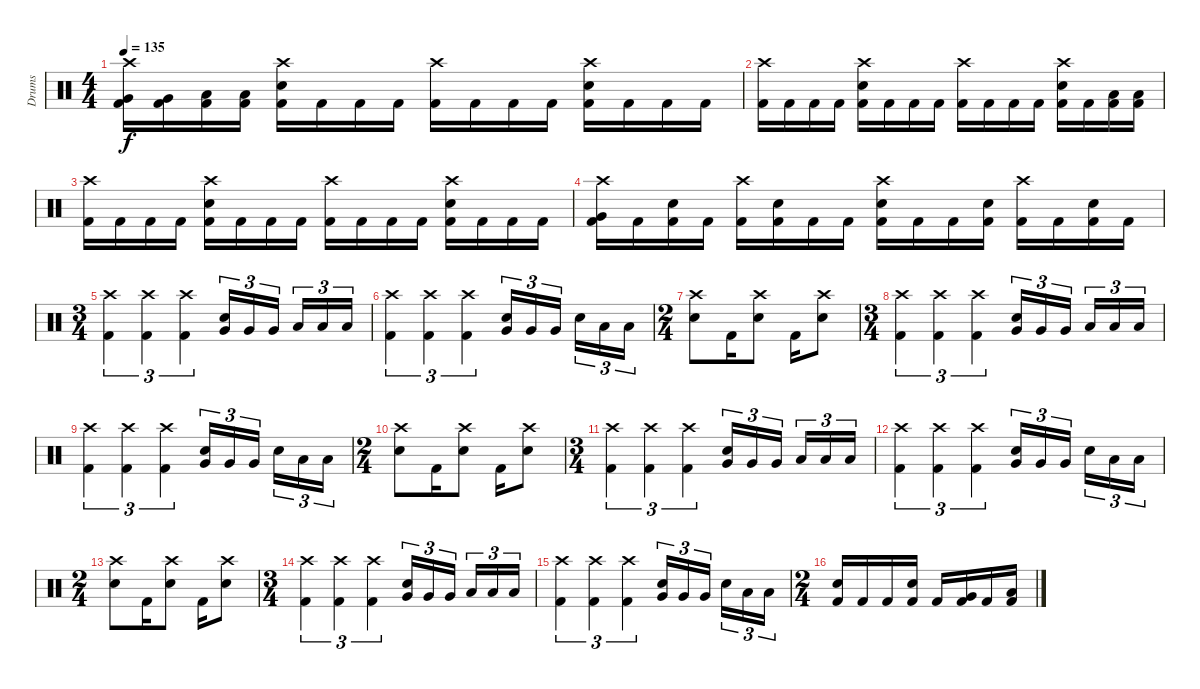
\track ("Drums" "Drums") {instrument percussion}
\staff {score}
\articulation defaults
\ts (4 4)
\tempo 135
\clef neutral
\ks c
("Crash high (hit)" "Kick (hit) 2" "Very Low Tom (hit)").16{dy f} ("Kick (hit) 2" "Very Low Tom (hit)").16 ("Kick (hit) 2" "Low Floor Tom (hit)").16 ("Kick (hit) 2" "Low Floor Tom (hit)").16 ("Crash high (hit)" "Kick (hit) 2" "Electric Snare (hit)").16 "Kick (hit) 2".16 "Kick (hit) 2".16 "Kick (hit) 2".16 ("Crash high (hit)" "Kick (hit) 2").16 "Kick (hit) 2".16 "Kick (hit) 2".16 "Kick (hit) 2".16 ("Crash high (hit)" "Kick (hit) 2" "Electric Snare (hit)").16 "Kick (hit) 2".16 "Kick (hit) 2".16 "Kick (hit) 2".16 |
("Crash high (hit)" "Kick (hit) 2").16 "Kick (hit) 2".16 "Kick (hit) 2".16 "Kick (hit) 2".16 ("Crash high (hit)" "Kick (hit) 2" "Electric Snare (hit)").16 "Kick (hit) 2".16 "Kick (hit) 2".16 "Kick (hit) 2".16 ("Crash high (hit)" "Kick (hit) 2").16 "Kick (hit) 2".16 "Kick (hit) 2".16 "Kick (hit) 2".16 ("Crash high (hit)" "Kick (hit) 2" "Electric Snare (hit)").16 "Kick (hit) 2".16 ("Kick (hit) 2" "Low Floor Tom (hit)").16 ("Kick (hit) 2" "Low Floor Tom (hit)").16 |
("Crash high (hit)" "Kick (hit) 2").16 "Kick (hit) 2".16 "Kick (hit) 2".16 "Kick (hit) 2".16 ("Crash high (hit)" "Kick (hit) 2" "Electric Snare (hit)").16 "Kick (hit) 2".16 "Kick (hit) 2".16 "Kick (hit) 2".16 ("Crash high (hit)" "Kick (hit) 2").16 "Kick (hit) 2".16 "Kick (hit) 2".16 "Kick (hit) 2".16 ("Crash high (hit)" "Kick (hit) 2" "Electric Snare (hit)").16 "Kick (hit) 2".16 "Kick (hit) 2".16 "Kick (hit) 2".16 |
("Crash high (hit)" "Kick (hit) 2" "Very Low Tom (hit)").16 "Kick (hit) 2".16 ("Kick (hit) 2" "Electric Snare (hit)").16 "Kick (hit) 2".16 ("Crash high (hit)" "Kick (hit) 2").16 ("Kick (hit) 2" "Electric Snare (hit)").16 "Kick (hit) 2".16 "Kick (hit) 2".16 ("Crash high (hit)" "Kick (hit) 2" "Electric Snare (hit)").16 "Kick (hit) 2".16 "Kick (hit) 2".16 ("Kick (hit) 2" "Electric Snare (hit)").16 ("Crash high (hit)" "Kick (hit) 2").16 "Kick (hit) 2".16 ("Kick (hit) 2" "Electric Snare (hit)").16 "Kick (hit) 2".16 |
\ts (3 4)
("Crash high (hit)" "Kick (hit) 2").4{tu (3 2)} ("Crash high (hit)" "Kick (hit) 2").4{tu (3 2)} ("Crash high (hit)" "Kick (hit) 2").4{tu (3 2)} ("Very Low Tom (hit)" "Electric Snare (hit)").16{tu (3 2)} "Very Low Tom (hit)".16{tu (3 2)} "Very Low Tom (hit)".16{tu (3 2) beam splitsecondary} "Low Floor Tom (hit)".16{tu (3 2)} "Low Floor Tom (hit)".16{tu (3 2)} "Low Floor Tom (hit)".16{tu (3 2)} |
("Crash high (hit)" "Kick (hit) 2").4{tu (3 2)} ("Crash high (hit)" "Kick (hit) 2").4{tu (3 2)} ("Crash high (hit)" "Kick (hit) 2").4{tu (3 2)} ("Very Low Tom (hit)" "Electric Snare (hit)").16{tu (3 2)} "Very Low Tom (hit)".16{tu (3 2)} "Very Low Tom (hit)".16{tu (3 2) beam splitsecondary} "Electric Snare (hit)".16{tu (3 2)} "Low Floor Tom (hit)".16{tu (3 2)} "Low Floor Tom (hit)".16{tu (3 2)} |
\ts (2 4)
("Crash high (hit)" "Electric Snare (hit)").8 "Kick (hit) 2".16 ("Crash high (hit)" "Electric Snare (hit)").8 "Kick (hit) 2".16 ("Crash high (hit)" "Electric Snare (hit)").8 |
\ts (3 4)
("Crash high (hit)" "Kick (hit) 2").4{tu (3 2)} ("Crash high (hit)" "Kick (hit) 2").4{tu (3 2)} ("Crash high (hit)" "Kick (hit) 2").4{tu (3 2)} ("Very Low Tom (hit)" "Electric Snare (hit)").16{tu (3 2)} "Very Low Tom (hit)".16{tu (3 2)} "Very Low Tom (hit)".16{tu (3 2) beam splitsecondary} "Low Floor Tom (hit)".16{tu (3 2)} "Low Floor Tom (hit)".16{tu (3 2)} "Low Floor Tom (hit)".16{tu (3 2)} |
("Crash high (hit)" "Kick (hit) 2").4{tu (3 2)} ("Crash high (hit)" "Kick (hit) 2").4{tu (3 2)} ("Crash high (hit)" "Kick (hit) 2").4{tu (3 2)} ("Very Low Tom (hit)" "Electric Snare (hit)").16{tu (3 2)} "Very Low Tom (hit)".16{tu (3 2)} "Very Low Tom (hit)".16{tu (3 2) beam splitsecondary} "Electric Snare (hit)".16{tu (3 2)} "Low Floor Tom (hit)".16{tu (3 2)} "Low Floor Tom (hit)".16{tu (3 2)} |
\ts (2 4)
("Crash high (hit)" "Electric Snare (hit)").8 "Kick (hit) 2".16 ("Crash high (hit)" "Electric Snare (hit)").8 "Kick (hit) 2".16 ("Crash high (hit)" "Electric Snare (hit)").8 |
\ts (3 4)
("Crash high (hit)" "Kick (hit) 2").4{tu (3 2)} ("Crash high (hit)" "Kick (hit) 2").4{tu (3 2)} ("Crash high (hit)" "Kick (hit) 2").4{tu (3 2)} ("Very Low Tom (hit)" "Electric Snare (hit)").16{tu (3 2)} "Very Low Tom (hit)".16{tu (3 2)} "Very Low Tom (hit)".16{tu (3 2) beam splitsecondary} "Low Floor Tom (hit)".16{tu (3 2)} "Low Floor Tom (hit)".16{tu (3 2)} "Low Floor Tom (hit)".16{tu (3 2)} |
("Crash high (hit)" "Kick (hit) 2").4{tu (3 2)} ("Crash high (hit)" "Kick (hit) 2").4{tu (3 2)} ("Crash high (hit)" "Kick (hit) 2").4{tu (3 2)} ("Very Low Tom (hit)" "Electric Snare (hit)").16{tu (3 2)} "Very Low Tom (hit)".16{tu (3 2)} "Very Low Tom (hit)".16{tu (3 2) beam splitsecondary} "Electric Snare (hit)".16{tu (3 2)} "Low Floor Tom (hit)".16{tu (3 2)} "Low Floor Tom (hit)".16{tu (3 2)} |
\ts (2 4)
("Crash high (hit)" "Electric Snare (hit)").8 "Kick (hit) 2".16 ("Crash high (hit)" "Electric Snare (hit)").8 "Kick (hit) 2".16 ("Crash high (hit)" "Electric Snare (hit)").8 |
\ts (3 4)
("Crash high (hit)" "Kick (hit) 2").4{tu (3 2)} ("Crash high (hit)" "Kick (hit) 2").4{tu (3 2)} ("Crash high (hit)" "Kick (hit) 2").4{tu (3 2)} ("Very Low Tom (hit)" "Electric Snare (hit)").16{tu (3 2)} "Very Low Tom (hit)".16{tu (3 2)} "Very Low Tom (hit)".16{tu (3 2) beam splitsecondary} "Low Floor Tom (hit)".16{tu (3 2)} "Low Floor Tom (hit)".16{tu (3 2)} "Low Floor Tom (hit)".16{tu (3 2)} |
("Crash high (hit)" "Kick (hit) 2").4{tu (3 2)} ("Crash high (hit)" "Kick (hit) 2").4{tu (3 2)} ("Crash high (hit)" "Kick (hit) 2").4{tu (3 2)} ("Very Low Tom (hit)" "Electric Snare (hit)").16{tu (3 2)} "Very Low Tom (hit)".16{tu (3 2)} "Very Low Tom (hit)".16{tu (3 2) beam splitsecondary} "Electric Snare (hit)".16{tu (3 2)} "Low Floor Tom (hit)".16{tu (3 2)} "Low Floor Tom (hit)".16{tu (3 2)} |
\ts (2 4)
("Kick (hit) 2" "Electric Snare (hit)").16 "Kick (hit) 2".16 "Kick (hit) 2".16 ("Kick (hit) 2" "Electric Snare (hit)").16 "Kick (hit) 2".16 ("Kick (hit) 2" "Very Low Tom (hit)").16 "Kick (hit) 2".16 ("Kick (hit) 2" "Low Floor Tom (hit)").16
